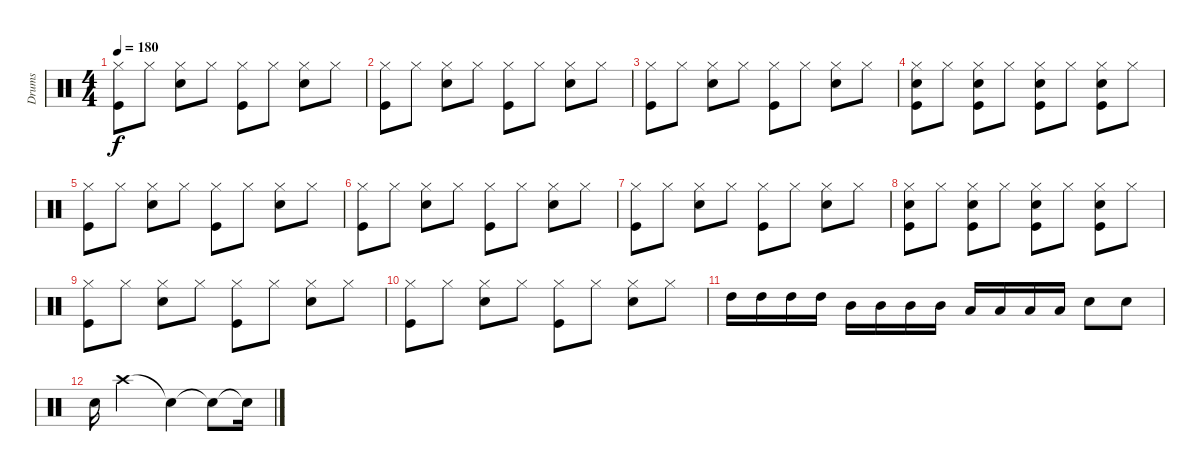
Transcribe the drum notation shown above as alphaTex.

\track ("Drums" "Drums") {instrument percussion}
\staff {score}
\articulation defaults
\ts (4 4)
\tempo 180
\clef neutral
\ks c
("Hi-Hat (closed)" "Kick (hit)").8{dy f} "Hi-Hat (closed)".8 ("Hi-Hat (closed)" "Snare (hit) 2").8 "Hi-Hat (closed)".8 ("Hi-Hat (closed)" "Kick (hit)").8 "Hi-Hat (closed)".8 ("Hi-Hat (closed)" "Snare (hit) 2").8 "Hi-Hat (closed)".8 |
("Hi-Hat (closed)" "Kick (hit)").8 "Hi-Hat (closed)".8 ("Hi-Hat (closed)" "Snare (hit) 2").8 "Hi-Hat (closed)".8 ("Hi-Hat (closed)" "Kick (hit)").8 "Hi-Hat (closed)".8 ("Hi-Hat (closed)" "Snare (hit) 2").8 "Hi-Hat (closed)".8 |
("Hi-Hat (closed)" "Kick (hit)").8 "Hi-Hat (closed)".8 ("Hi-Hat (closed)" "Snare (hit) 2").8 "Hi-Hat (closed)".8 ("Hi-Hat (closed)" "Kick (hit)").8 "Hi-Hat (closed)".8 ("Hi-Hat (closed)" "Snare (hit) 2").8 "Hi-Hat (closed)".8 |
("Hi-Hat (closed)" "Kick (hit)" "Snare (hit) 2").8 "Hi-Hat (closed)".8 ("Hi-Hat (closed)" "Kick (hit)" "Snare (hit) 2").8 "Hi-Hat (closed)".8 ("Hi-Hat (closed)" "Kick (hit)" "Snare (hit) 2").8 "Hi-Hat (closed)".8 ("Hi-Hat (closed)" "Kick (hit)" "Snare (hit) 2").8 "Hi-Hat (closed)".8 |
("Hi-Hat (closed)" "Kick (hit)").8 "Hi-Hat (closed)".8 ("Hi-Hat (closed)" "Snare (hit) 2").8 "Hi-Hat (closed)".8 ("Hi-Hat (closed)" "Kick (hit)").8 "Hi-Hat (closed)".8 ("Hi-Hat (closed)" "Snare (hit) 2").8 "Hi-Hat (closed)".8 |
("Hi-Hat (closed)" "Kick (hit)").8 "Hi-Hat (closed)".8 ("Hi-Hat (closed)" "Snare (hit) 2").8 "Hi-Hat (closed)".8 ("Hi-Hat (closed)" "Kick (hit)").8 "Hi-Hat (closed)".8 ("Hi-Hat (closed)" "Snare (hit) 2").8 "Hi-Hat (closed)".8 |
("Hi-Hat (closed)" "Kick (hit)").8 "Hi-Hat (closed)".8 ("Hi-Hat (closed)" "Snare (hit) 2").8 "Hi-Hat (closed)".8 ("Hi-Hat (closed)" "Kick (hit)").8 "Hi-Hat (closed)".8 ("Hi-Hat (closed)" "Snare (hit) 2").8 "Hi-Hat (closed)".8 |
("Hi-Hat (closed)" "Kick (hit)" "Snare (hit) 2").8 "Hi-Hat (closed)".8 ("Hi-Hat (closed)" "Kick (hit)" "Snare (hit) 2").8 "Hi-Hat (closed)".8 ("Hi-Hat (closed)" "Kick (hit)" "Snare (hit) 2").8 "Hi-Hat (closed)".8 ("Hi-Hat (closed)" "Kick (hit)" "Snare (hit) 2").8 "Hi-Hat (closed)".8 |
("Hi-Hat (closed)" "Kick (hit)").8 "Hi-Hat (closed)".8 ("Hi-Hat (closed)" "Snare (hit) 2").8 "Hi-Hat (closed)".8 ("Hi-Hat (closed)" "Kick (hit)").8 "Hi-Hat (closed)".8 ("Hi-Hat (closed)" "Snare (hit) 2").8 "Hi-Hat (closed)".8 |
("Hi-Hat (closed)" "Kick (hit)").8 "Hi-Hat (closed)".8 ("Hi-Hat (closed)" "Snare (hit) 2").8 "Hi-Hat (closed)".8 ("Hi-Hat (closed)" "Kick (hit)").8 "Hi-Hat (closed)".8 ("Hi-Hat (closed)" "Snare (hit) 2").8 "Hi-Hat (closed)".8 |
"High Tom (hit)".16 "High Tom (hit)".16 "High Tom (hit)".16 "High Tom (hit)".16 "Mid Tom (hit)".16 "Mid Tom (hit)".16 "Mid Tom (hit)".16 "Mid Tom (hit)".16 "Low Tom (hit)".16 "Low Tom (hit)".16 "Low Tom (hit)".16 "Low Tom (hit)".16 "Snare (hit) 2".8 "Snare (hit) 2".8 |
"Snare (hit) 2".16 "Crash high (hit)".2 "Snare (hit)"{t}.4 "Snare (hit)"{t}.8 "Snare (hit)"{t}.16
